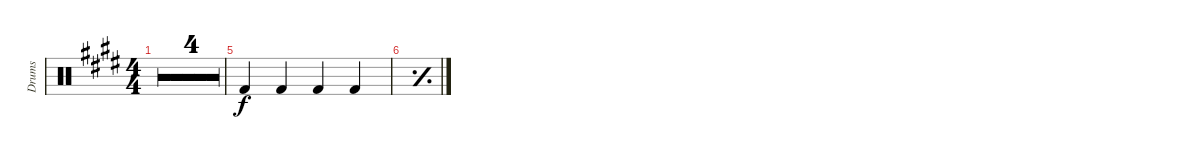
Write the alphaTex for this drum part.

\defaultSystemsLayout 4
\bracketExtendMode groupsimilarinstruments
\otherSystemsTrackNameOrientation horizontal
\track ("Drumkit" "Drums") {multiBarRest instrument percussion}
\staff {score}
\articulation defaults
\ts (4 4)
\tempo 104
\clef neutral
\ks c#minor
r.1{dy f} |
r.1 |
r.1 |
r.1 |
"Kick (hit) 2"{acc forcenatural}.4 "Kick (hit) 2"{acc forcenatural}.4 "Kick (hit) 2"{acc forcenatural}.4 "Kick (hit) 2"{acc forcenatural}.4 |
\simile simple
